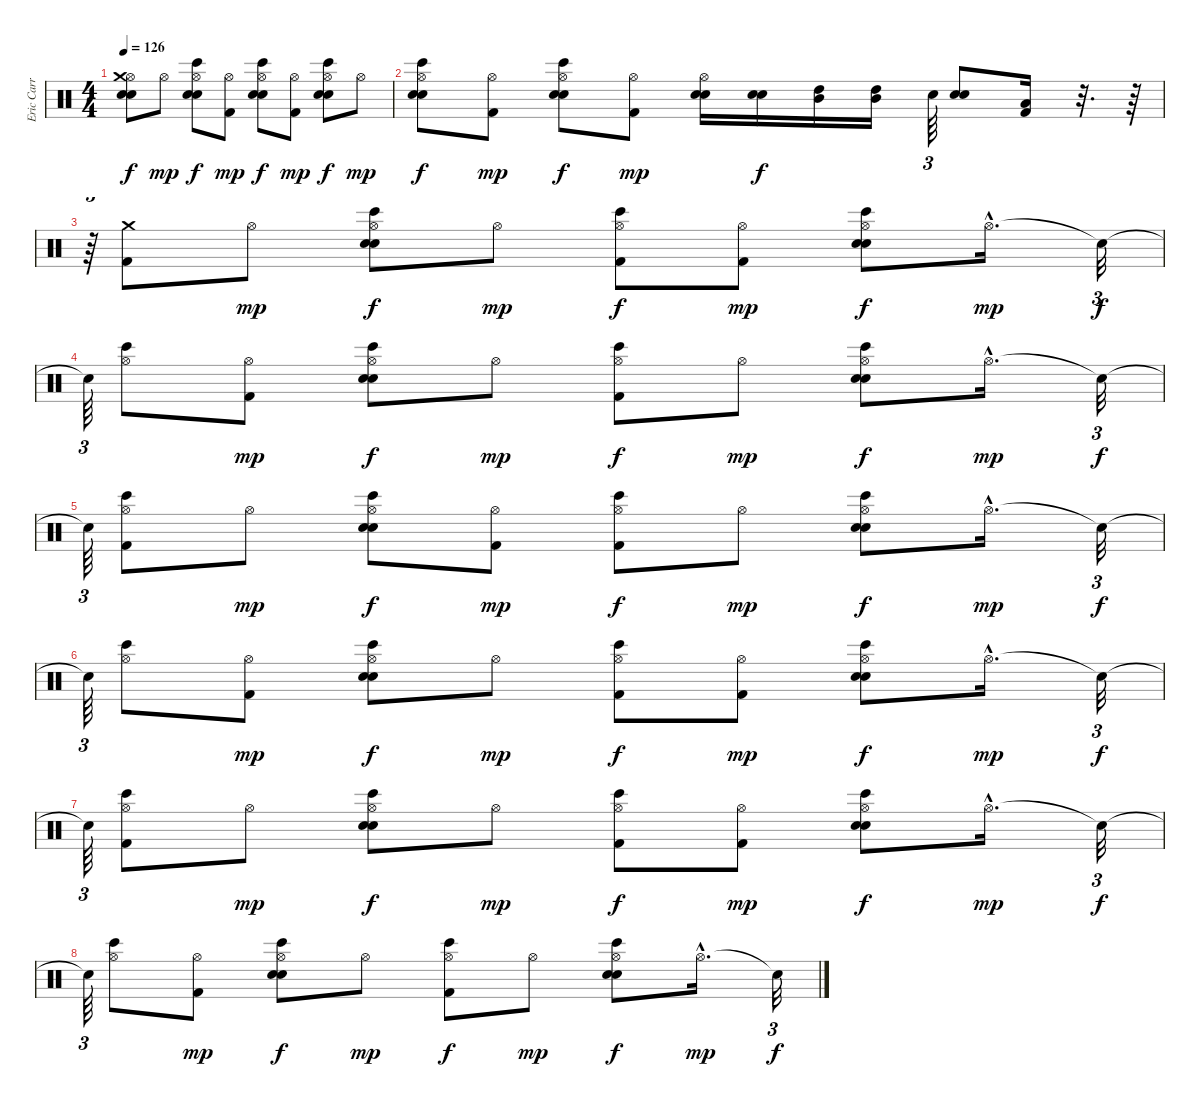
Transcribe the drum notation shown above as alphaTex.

\track ("Eric Carr" "Eric Carr") {instrument percussion}
\staff {score}
\articulation defaults
\ts (4 4)
\tempo 126
\clef neutral
\ks c
("Hi-Hat (open)" "Crash medium (hit)" "Snare (hit) 2" "Electric Snare (hit)").8{dy f} "Hi-Hat (open)".8{dy mp} ("Hi-Hat (open)" "Bongo High (hit)" "Electric Snare (hit)" "Snare (hit) 2").8{dy f} ("Hi-Hat (open)" "Kick (hit) 2").8{dy mp} ("Hi-Hat (open)" "Bongo High (hit)" "Electric Snare (hit)" "Snare (hit) 2").8{dy f} ("Hi-Hat (open)" "Kick (hit) 2").8{dy mp} ("Hi-Hat (open)" "Bongo High (hit)" "Electric Snare (hit)" "Snare (hit) 2").8{dy f} "Hi-Hat (open)".8{dy mp} |
("Bongo High (hit)" "Hi-Hat (open)" "Electric Snare (hit)" "Snare (hit) 2").8{dy f} ("Hi-Hat (open)" "Kick (hit) 2").8{dy mp} ("Bongo High (hit)" "Hi-Hat (open)" "Electric Snare (hit)" "Snare (hit) 2").8{dy f} ("Hi-Hat (open)" "Kick (hit) 2").8{dy mp} ("Hi-Hat (open)" "Snare (hit) 2" "Electric Snare (hit)").16 ("Electric Snare (hit)" "Snare (hit) 2").16{dy f} ("Mid Tom (hit)" "High Tom (hit)").16 ("Mid Tom (hit)" "High Tom (hit)").16 "Snare (hit) 2".64{tu (3 2)} ("Snare (hit) 2" "Electric Snare (hit)").8 ("Low Tom (hit)" "Kick (hit) 2").16 r.32{d} r.64 |
r.64{tu (3 2)} ("Crash medium (hit)" "Kick (hit) 2").8 "Hi-Hat (open)".8{dy mp} ("Bongo High (hit)" "Hi-Hat (open)" "Snare (hit) 2" "Electric Snare (hit)").8{dy f} "Hi-Hat (open)".8{dy mp} ("Bongo High (hit)" "Kick (hit) 2" "Hi-Hat (open)").8{dy f} ("Kick (hit) 2" "Hi-Hat (open)").8{dy mp} ("Bongo High (hit)" "Electric Snare (hit)" "Snare (hit) 2" "Hi-Hat (open)").8{dy f} "Hi-Hat (open)"{hac}.16{d dy mp} "Snare (hit)"{t}.32{tu (3 2) dy f} |
"Snare (hit)"{t}.64{tu (3 2)} ("Bongo High (hit)" "Hi-Hat (open)").8 ("Kick (hit) 2" "Hi-Hat (open)").8{dy mp} ("Bongo High (hit)" "Hi-Hat (open)" "Snare (hit) 2" "Electric Snare (hit)").8{dy f} "Hi-Hat (open)".8{dy mp} ("Bongo High (hit)" "Kick (hit) 2" "Hi-Hat (open)").8{dy f} "Hi-Hat (open)".8{dy mp} ("Bongo High (hit)" "Electric Snare (hit)" "Snare (hit) 2" "Hi-Hat (open)").8{dy f} "Hi-Hat (open)"{hac}.16{d dy mp} "Snare (hit)"{t}.32{tu (3 2) dy f} |
"Snare (hit)"{t}.64{tu (3 2)} ("Bongo High (hit)" "Hi-Hat (open)" "Kick (hit) 2").8 "Hi-Hat (open)".8{dy mp} ("Bongo High (hit)" "Hi-Hat (open)" "Snare (hit) 2" "Electric Snare (hit)").8{dy f} ("Kick (hit) 2" "Hi-Hat (open)").8{dy mp} ("Bongo High (hit)" "Kick (hit) 2" "Hi-Hat (open)").8{dy f} "Hi-Hat (open)".8{dy mp} ("Bongo High (hit)" "Electric Snare (hit)" "Snare (hit) 2" "Hi-Hat (open)").8{dy f} "Hi-Hat (open)"{hac}.16{d dy mp} "Snare (hit)"{t}.32{tu (3 2) dy f} |
"Snare (hit)"{t}.64{tu (3 2)} ("Bongo High (hit)" "Hi-Hat (open)").8 ("Kick (hit) 2" "Hi-Hat (open)").8{dy mp} ("Bongo High (hit)" "Hi-Hat (open)" "Snare (hit) 2" "Electric Snare (hit)").8{dy f} "Hi-Hat (open)".8{dy mp} ("Bongo High (hit)" "Kick (hit) 2" "Hi-Hat (open)").8{dy f} ("Kick (hit) 2" "Hi-Hat (open)").8{dy mp} ("Bongo High (hit)" "Electric Snare (hit)" "Snare (hit) 2" "Hi-Hat (open)").8{dy f} "Hi-Hat (open)"{hac}.16{d dy mp} "Snare (hit)"{t}.32{tu (3 2) dy f} |
"Snare (hit)"{t}.64{tu (3 2)} ("Hi-Hat (open)" "Bongo High (hit)" "Kick (hit) 2").8 "Hi-Hat (open)".8{dy mp} ("Bongo High (hit)" "Hi-Hat (open)" "Snare (hit) 2" "Electric Snare (hit)").8{dy f} "Hi-Hat (open)".8{dy mp} ("Bongo High (hit)" "Kick (hit) 2" "Hi-Hat (open)").8{dy f} ("Kick (hit) 2" "Hi-Hat (open)").8{dy mp} ("Bongo High (hit)" "Electric Snare (hit)" "Snare (hit) 2" "Hi-Hat (open)").8{dy f} "Hi-Hat (open)"{hac}.16{d dy mp} "Snare (hit)"{t}.32{tu (3 2) dy f} |
"Snare (hit)"{t}.64{tu (3 2)} ("Bongo High (hit)" "Hi-Hat (open)").8 ("Kick (hit) 2" "Hi-Hat (open)").8{dy mp} ("Bongo High (hit)" "Hi-Hat (open)" "Snare (hit) 2" "Electric Snare (hit)").8{dy f} "Hi-Hat (open)".8{dy mp} ("Bongo High (hit)" "Kick (hit) 2" "Hi-Hat (open)").8{dy f} "Hi-Hat (open)".8{dy mp} ("Bongo High (hit)" "Electric Snare (hit)" "Snare (hit) 2" "Hi-Hat (open)").8{dy f} "Hi-Hat (open)"{hac}.16{d dy mp} "Snare (hit)"{t}.32{tu (3 2) dy f}
